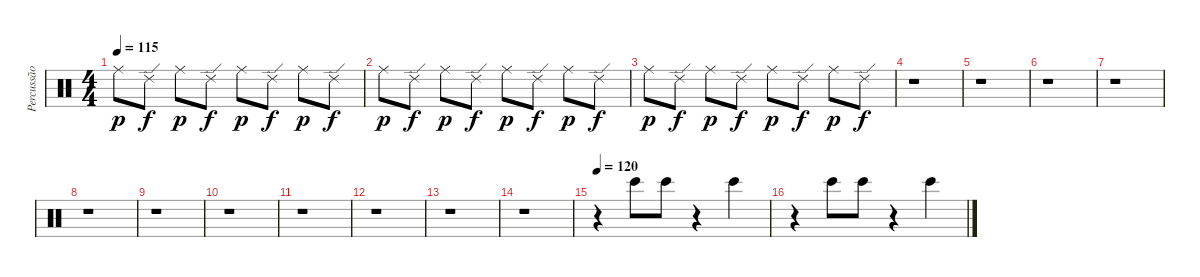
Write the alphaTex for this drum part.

\track ("Percussão" "Percussão") {instrument percussion}
\staff {score}
\articulation defaults
\ts (4 4)
\tempo 115
\clef neutral
\ks c "Ride (middle)".8{dy p} "Ride (edge) 2".8{dy f} "Ride (middle)".8{dy p} "Ride (edge) 2".8{dy f} "Ride (middle)".8{dy p} "Ride (edge) 2".8{dy f} "Ride (middle)".8{dy p} "Ride (edge) 2".8{dy f}
|
"Ride (middle)".8{dy p} "Ride (edge) 2".8{dy f} "Ride (middle)".8{dy p} "Ride (edge) 2".8{dy f} "Ride (middle)".8{dy p} "Ride (edge) 2".8{dy f} "Ride (middle)".8{dy p} "Ride (edge) 2".8{dy f} |
"Ride (middle)".8{dy p} "Ride (edge) 2".8{dy f} "Ride (middle)".8{dy p} "Ride (edge) 2".8{dy f} "Ride (middle)".8{dy p} "Ride (edge) 2".8{dy f} "Ride (middle)".8{dy p} "Ride (edge) 2".8{dy f} |
r.1 |
r.1 |
r.1 |
r.1 |
r.1 |
r.1 |
r.1 |
r.1 |
r.1 |
r.1 |
r.1 |
\tempo 120
r.4 "Bongo High (hit)".8 "Bongo High (hit)".8 r.4 "Bongo High (hit)".4 |
r.4 "Bongo High (hit)".8 "Bongo High (hit)".8 r.4 "Bongo High (hit)".4
